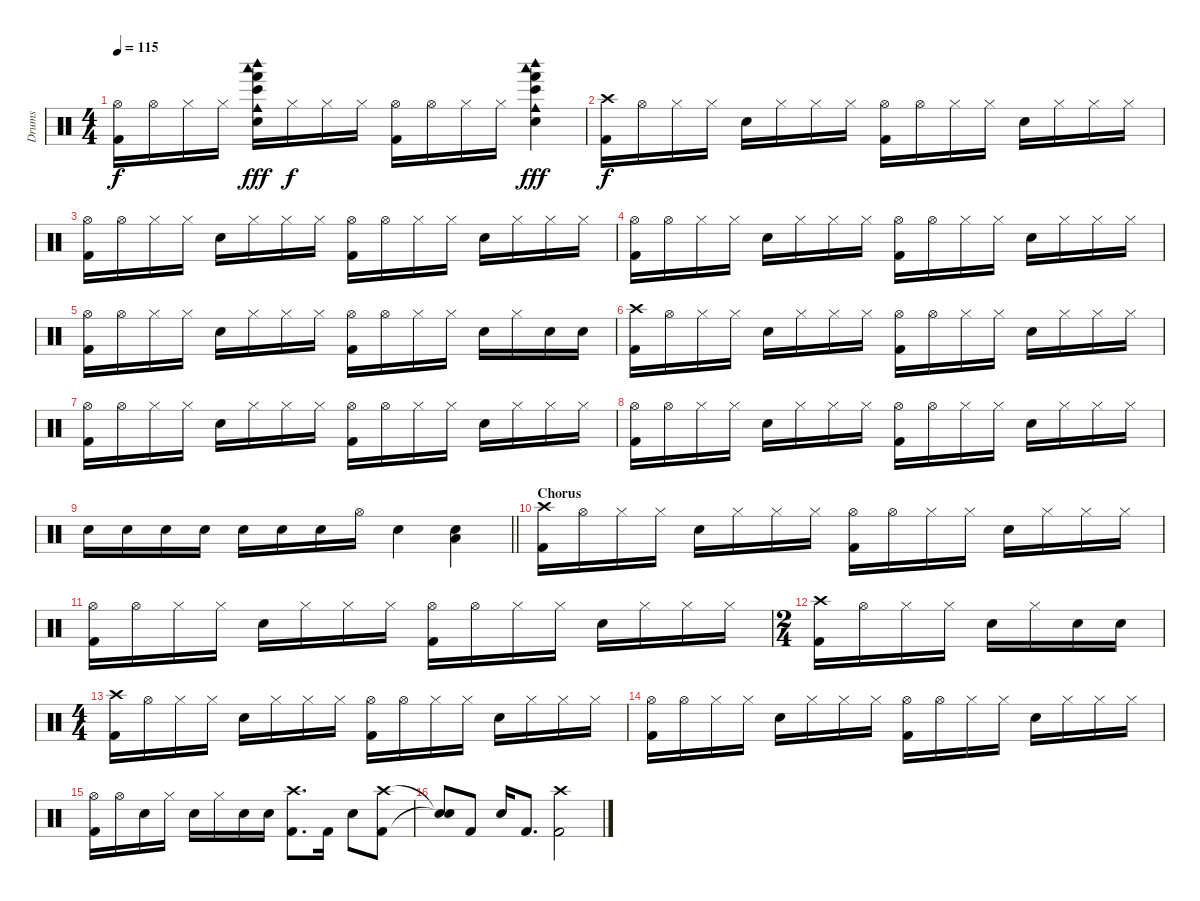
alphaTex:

\track ("Drums" "Drums") {instrument percussion}
\staff {score}
\articulation defaults
\ts (4 4)
\tempo 115
\clef neutral
\ks c
("Hi-Hat (open)" "Kick (hit) 2").16{dy f} "Hi-Hat (open)".16 "Hi-Hat (closed)".16 "Hi-Hat (closed)".16 ("Woodblock low (hit)" "Woodblock high (hit)" "Cowbell medium (hit)" "Electric Snare (hit)" "Hand (hit)" "Bongo High (hit)").16{dy fff} "Hi-Hat (closed)".16{dy f} "Hi-Hat (closed)".16 "Hi-Hat (closed)".16 ("Hi-Hat (open)" "Kick (hit) 2").16 "Hi-Hat (open)".16 "Hi-Hat (closed)".16 "Hi-Hat (closed)".16 ("Woodblock low (hit)" "Woodblock high (hit)" "Cowbell medium (hit)" "Electric Snare (hit)" "Hand (hit)" "Bongo High (hit)").4{dy fff} |
("Crash high (hit)" "Kick (hit) 2").16{dy f} "Hi-Hat (open)".16 "Hi-Hat (closed)".16 "Hi-Hat (closed)".16 "Electric Snare (hit)".16 "Hi-Hat (closed)".16 "Hi-Hat (closed)".16 "Hi-Hat (closed)".16 ("Hi-Hat (open)" "Kick (hit) 2").16 "Hi-Hat (open)".16 "Hi-Hat (closed)".16 "Hi-Hat (closed)".16 "Electric Snare (hit)".16 "Hi-Hat (closed)".16 "Hi-Hat (closed)".16 "Hi-Hat (closed)".16 |
("Hi-Hat (open)" "Kick (hit) 2").16 "Hi-Hat (open)".16 "Hi-Hat (closed)".16 "Hi-Hat (closed)".16 "Electric Snare (hit)".16 "Hi-Hat (closed)".16 "Hi-Hat (closed)".16 "Hi-Hat (closed)".16 ("Hi-Hat (open)" "Kick (hit) 2").16 "Hi-Hat (open)".16 "Hi-Hat (closed)".16 "Hi-Hat (closed)".16 "Electric Snare (hit)".16 "Hi-Hat (closed)".16 "Hi-Hat (closed)".16 "Hi-Hat (closed)".16 |
("Hi-Hat (open)" "Kick (hit) 2").16 "Hi-Hat (open)".16 "Hi-Hat (closed)".16 "Hi-Hat (closed)".16 "Electric Snare (hit)".16 "Hi-Hat (closed)".16 "Hi-Hat (closed)".16 "Hi-Hat (closed)".16 ("Hi-Hat (open)" "Kick (hit) 2").16 "Hi-Hat (open)".16 "Hi-Hat (closed)".16 "Hi-Hat (closed)".16 "Electric Snare (hit)".16 "Hi-Hat (closed)".16 "Hi-Hat (closed)".16 "Hi-Hat (closed)".16 |
("Hi-Hat (open)" "Kick (hit) 2").16 "Hi-Hat (open)".16 "Hi-Hat (closed)".16 "Hi-Hat (closed)".16 "Electric Snare (hit)".16 "Hi-Hat (closed)".16 "Hi-Hat (closed)".16 "Hi-Hat (closed)".16 ("Hi-Hat (open)" "Kick (hit) 2").16 "Hi-Hat (open)".16 "Hi-Hat (closed)".16 "Hi-Hat (closed)".16 "Electric Snare (hit)".16 "Hi-Hat (closed)".16 "Electric Snare (hit)".16 "Electric Snare (hit)".16 |
("Crash high (hit)" "Kick (hit) 2").16 "Hi-Hat (open)".16 "Hi-Hat (closed)".16 "Hi-Hat (closed)".16 "Electric Snare (hit)".16 "Hi-Hat (closed)".16 "Hi-Hat (closed)".16 "Hi-Hat (closed)".16 ("Hi-Hat (open)" "Kick (hit) 2").16 "Hi-Hat (open)".16 "Hi-Hat (closed)".16 "Hi-Hat (closed)".16 "Electric Snare (hit)".16 "Hi-Hat (closed)".16 "Hi-Hat (closed)".16 "Hi-Hat (closed)".16 |
("Hi-Hat (open)" "Kick (hit) 2").16 "Hi-Hat (open)".16 "Hi-Hat (closed)".16 "Hi-Hat (closed)".16 "Electric Snare (hit)".16 "Hi-Hat (closed)".16 "Hi-Hat (closed)".16 "Hi-Hat (closed)".16 ("Hi-Hat (open)" "Kick (hit) 2").16 "Hi-Hat (open)".16 "Hi-Hat (closed)".16 "Hi-Hat (closed)".16 "Electric Snare (hit)".16 "Hi-Hat (closed)".16 "Hi-Hat (closed)".16 "Hi-Hat (closed)".16 |
("Hi-Hat (open)" "Kick (hit) 2").16 "Hi-Hat (open)".16 "Hi-Hat (closed)".16 "Hi-Hat (closed)".16 "Electric Snare (hit)".16 "Hi-Hat (closed)".16 "Hi-Hat (closed)".16 "Hi-Hat (closed)".16 ("Hi-Hat (open)" "Kick (hit) 2").16 "Hi-Hat (open)".16 "Hi-Hat (closed)".16 "Hi-Hat (closed)".16 "Electric Snare (hit)".16 "Hi-Hat (closed)".16 "Hi-Hat (closed)".16 "Hi-Hat (closed)".16 |
\barLineRight lightlight "Electric Snare (hit)".16 "Electric Snare (hit)".16 "Electric Snare (hit)".16 "Electric Snare (hit)".16 "Electric Snare (hit)".16 "Electric Snare (hit)".16 "Electric Snare (hit)".16 "Hi-Hat (open)".16 "Electric Snare (hit)".4
("Low Floor Tom (hit)" "Electric Snare (hit)").4 |
\section ("" "Chorus")
("Crash high (hit)" "Kick (hit) 2").16 "Hi-Hat (open)".16 "Hi-Hat (closed)".16 "Hi-Hat (closed)".16 "Electric Snare (hit)".16 "Hi-Hat (closed)".16 "Hi-Hat (closed)".16 "Hi-Hat (closed)".16 ("Hi-Hat (open)" "Kick (hit) 2").16 "Hi-Hat (open)".16 "Hi-Hat (closed)".16 "Hi-Hat (closed)".16 "Electric Snare (hit)".16 "Hi-Hat (closed)".16 "Hi-Hat (closed)".16 "Hi-Hat (closed)".16 |
("Hi-Hat (open)" "Kick (hit) 2").16 "Hi-Hat (open)".16 "Hi-Hat (closed)".16 "Hi-Hat (closed)".16 "Electric Snare (hit)".16 "Hi-Hat (closed)".16 "Hi-Hat (closed)".16 "Hi-Hat (closed)".16 ("Hi-Hat (open)" "Kick (hit) 2").16 "Hi-Hat (open)".16 "Hi-Hat (closed)".16 "Hi-Hat (closed)".16 "Electric Snare (hit)".16 "Hi-Hat (closed)".16 "Hi-Hat (closed)".16 "Hi-Hat (closed)".16 |
\ts (2 4)
("Crash high (hit)" "Kick (hit) 2").16 "Hi-Hat (open)".16 "Hi-Hat (closed)".16 "Hi-Hat (closed)".16 "Electric Snare (hit)".16 "Hi-Hat (closed)".16 "Electric Snare (hit)".16 "Electric Snare (hit)".16 |
\ts (4 4)
("Crash high (hit)" "Kick (hit) 2").16 "Hi-Hat (open)".16 "Hi-Hat (closed)".16 "Hi-Hat (closed)".16 "Electric Snare (hit)".16 "Hi-Hat (closed)".16 "Hi-Hat (closed)".16 "Hi-Hat (closed)".16 ("Hi-Hat (open)" "Kick (hit) 2").16 "Hi-Hat (open)".16 "Hi-Hat (closed)".16 "Hi-Hat (closed)".16 "Electric Snare (hit)".16 "Hi-Hat (closed)".16 "Hi-Hat (closed)".16 "Hi-Hat (closed)".16 |
("Hi-Hat (open)" "Kick (hit) 2").16 "Hi-Hat (open)".16 "Hi-Hat (closed)".16 "Hi-Hat (closed)".16 "Electric Snare (hit)".16 "Hi-Hat (closed)".16 "Hi-Hat (closed)".16 "Hi-Hat (closed)".16 ("Hi-Hat (open)" "Kick (hit) 2").16 "Hi-Hat (open)".16 "Hi-Hat (closed)".16 "Hi-Hat (closed)".16 "Electric Snare (hit)".16 "Hi-Hat (closed)".16 "Hi-Hat (closed)".16 "Hi-Hat (closed)".16 |
("Hi-Hat (open)" "Kick (hit) 2").16 "Hi-Hat (open)".16 "Electric Snare (hit)".16 "Hi-Hat (closed)".16 "Electric Snare (hit)".16 "Hi-Hat (closed)".16 "Electric Snare (hit)".16 "Electric Snare (hit)".16 ("Crash high (hit)" "Kick (hit) 2").8{d} "Kick (hit) 2".16 "Electric Snare (hit)".8 ("Crash high (hit)" "Kick (hit) 2").8 |
("Snare (hit)"{t} "Snare (hit)"{t}).8 "Kick (hit) 2".8 "Electric Snare (hit)".16 "Kick (hit) 2".8{d} ("Crash high (hit)" "Kick (hit) 2").2
